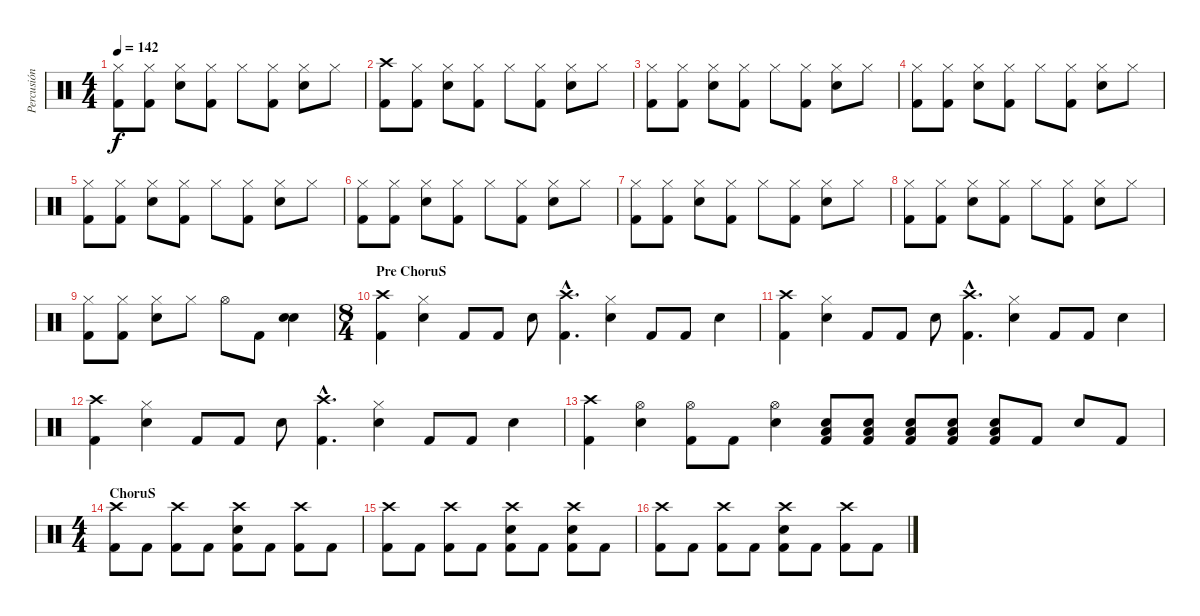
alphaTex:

\track ("Percusión  " "Percusión ") {instrument percussion}
\staff {score}
\articulation defaults
\ts (4 4)
\tempo 142
\clef neutral
\ks c
("Hi-Hat (closed)" "Kick (hit) 2").8{dy f} ("Hi-Hat (closed)" "Kick (hit) 2").8 ("Electric Snare (hit)" "Hi-Hat (closed)").8 ("Hi-Hat (closed)" "Kick (hit) 2").8 "Hi-Hat (closed)".8 ("Hi-Hat (closed)" "Kick (hit) 2").8 ("Electric Snare (hit)" "Hi-Hat (closed)").8 "Hi-Hat (closed)".8 |
("Crash high (hit)" "Kick (hit) 2").8 ("Hi-Hat (closed)" "Kick (hit) 2").8 ("Electric Snare (hit)" "Hi-Hat (closed)").8 ("Hi-Hat (closed)" "Kick (hit) 2").8 "Hi-Hat (closed)".8 ("Hi-Hat (closed)" "Kick (hit) 2").8 ("Electric Snare (hit)" "Hi-Hat (closed)").8 "Hi-Hat (closed)".8 |
("Hi-Hat (closed)" "Kick (hit) 2").8 ("Hi-Hat (closed)" "Kick (hit) 2").8 ("Electric Snare (hit)" "Hi-Hat (closed)").8 ("Hi-Hat (closed)" "Kick (hit) 2").8 "Hi-Hat (closed)".8 ("Hi-Hat (closed)" "Kick (hit) 2").8 ("Electric Snare (hit)" "Hi-Hat (closed)").8 "Hi-Hat (closed)".8 |
("Hi-Hat (closed)" "Kick (hit) 2").8 ("Hi-Hat (closed)" "Kick (hit) 2").8 ("Electric Snare (hit)" "Hi-Hat (closed)").8 ("Hi-Hat (closed)" "Kick (hit) 2").8 "Hi-Hat (closed)".8 ("Hi-Hat (closed)" "Kick (hit) 2").8 ("Electric Snare (hit)" "Hi-Hat (closed)").8 "Hi-Hat (closed)".8 |
("Hi-Hat (closed)" "Kick (hit) 2").8 ("Hi-Hat (closed)" "Kick (hit) 2").8 ("Electric Snare (hit)" "Hi-Hat (closed)").8 ("Hi-Hat (closed)" "Kick (hit) 2").8 "Hi-Hat (closed)".8 ("Hi-Hat (closed)" "Kick (hit) 2").8 ("Electric Snare (hit)" "Hi-Hat (closed)").8 "Hi-Hat (closed)".8 |
("Hi-Hat (closed)" "Kick (hit) 2").8 ("Hi-Hat (closed)" "Kick (hit) 2").8 ("Electric Snare (hit)" "Hi-Hat (closed)").8 ("Hi-Hat (closed)" "Kick (hit) 2").8 "Hi-Hat (closed)".8 ("Hi-Hat (closed)" "Kick (hit) 2").8 ("Electric Snare (hit)" "Hi-Hat (closed)").8 "Hi-Hat (closed)".8 |
("Hi-Hat (closed)" "Kick (hit) 2").8 ("Hi-Hat (closed)" "Kick (hit) 2").8 ("Electric Snare (hit)" "Hi-Hat (closed)").8 ("Hi-Hat (closed)" "Kick (hit) 2").8 "Hi-Hat (closed)".8 ("Hi-Hat (closed)" "Kick (hit) 2").8 ("Electric Snare (hit)" "Hi-Hat (closed)").8 "Hi-Hat (closed)".8 |
("Hi-Hat (closed)" "Kick (hit) 2").8 ("Hi-Hat (closed)" "Kick (hit) 2").8 ("Electric Snare (hit)" "Hi-Hat (closed)").8 ("Hi-Hat (closed)" "Kick (hit) 2").8 "Hi-Hat (closed)".8 ("Hi-Hat (closed)" "Kick (hit) 2").8 ("Electric Snare (hit)" "Hi-Hat (closed)").8 "Hi-Hat (closed)".8 |
("Hi-Hat (closed)" "Kick (hit) 2").8 ("Hi-Hat (closed)" "Kick (hit) 2").8 ("Electric Snare (hit)" "Hi-Hat (closed)").8 "Hi-Hat (closed)".8 "Hi-Hat (open)".8 "Kick (hit) 2".8 ("Electric Snare (hit)" "Electric Snare (hit)").4 |
\ts (8 4)
\section ("" "Pre ChoruS")
("Crash high (hit)" "Kick (hit) 2").4 ("Hi-Hat (closed)" "Electric Snare (hit)").4 "Kick (hit) 2".8 "Kick (hit) 2".8 "Electric Snare (hit)".8 ("Crash high (hit)"{hac} "Kick (hit) 2"{hac}).4{d} ("Hi-Hat (closed)" "Electric Snare (hit)").4 "Kick (hit) 2".8 "Kick (hit) 2".8 "Electric Snare (hit)".4 |
("Crash high (hit)" "Kick (hit) 2").4 ("Hi-Hat (closed)" "Electric Snare (hit)").4 "Kick (hit) 2".8 "Kick (hit) 2".8 "Electric Snare (hit)".8 ("Crash high (hit)"{hac} "Kick (hit) 2"{hac}).4{d} ("Hi-Hat (closed)" "Electric Snare (hit)").4 "Kick (hit) 2".8 "Kick (hit) 2".8 "Electric Snare (hit)".4 |
("Crash high (hit)" "Kick (hit) 2").4 ("Hi-Hat (closed)" "Electric Snare (hit)").4 "Kick (hit) 2".8 "Kick (hit) 2".8 "Electric Snare (hit)".8 ("Crash high (hit)"{hac} "Kick (hit) 2"{hac}).4{d} ("Hi-Hat (closed)" "Electric Snare (hit)").4 "Kick (hit) 2".8 "Kick (hit) 2".8 "Electric Snare (hit)".4 |
("Crash high (hit)" "Kick (hit) 2").4 ("Hi-Hat (open)" "Electric Snare (hit)").4 ("Hi-Hat (open)" "Kick (hit) 2").8 "Kick (hit) 2".8 ("Hi-Hat (open)" "Electric Snare (hit)").4 ("Low Tom (hit)" "Kick (hit) 2" "Electric Snare (hit)").8 ("Low Tom (hit)" "Kick (hit) 2" "Electric Snare (hit)").8 ("Low Tom (hit)" "Kick (hit) 2" "Electric Snare (hit)").8 ("Low Tom (hit)" "Kick (hit) 2" "Electric Snare (hit)").8 ("Low Tom (hit)" "Kick (hit) 2" "Electric Snare (hit)").8 "Kick (hit) 2".8 "Electric Snare (hit)".8 "Kick (hit) 2".8 |
\ts (4 4)
\section ("" "ChoruS")
("Crash high (hit)" "Kick (hit) 2").8 "Kick (hit) 2".8 ("Crash high (hit)" "Kick (hit) 2").8 "Kick (hit) 2".8 ("Crash high (hit)" "Electric Snare (hit)" "Kick (hit) 2").8 "Kick (hit) 2".8 ("Crash high (hit)" "Kick (hit) 2").8 "Kick (hit) 2".8 |
("Crash high (hit)" "Kick (hit) 2").8 "Kick (hit) 2".8 ("Crash high (hit)" "Kick (hit) 2").8 "Kick (hit) 2".8 ("Crash high (hit)" "Electric Snare (hit)" "Kick (hit) 2").8 "Kick (hit) 2".8 ("Crash high (hit)" "Electric Snare (hit)" "Kick (hit) 2").8 "Kick (hit) 2".8 |
("Crash high (hit)" "Kick (hit) 2").8 "Kick (hit) 2".8 ("Crash high (hit)" "Kick (hit) 2").8 "Kick (hit) 2".8 ("Crash high (hit)" "Electric Snare (hit)" "Kick (hit) 2").8 "Kick (hit) 2".8 ("Crash high (hit)" "Kick (hit) 2").8 "Kick (hit) 2".8
